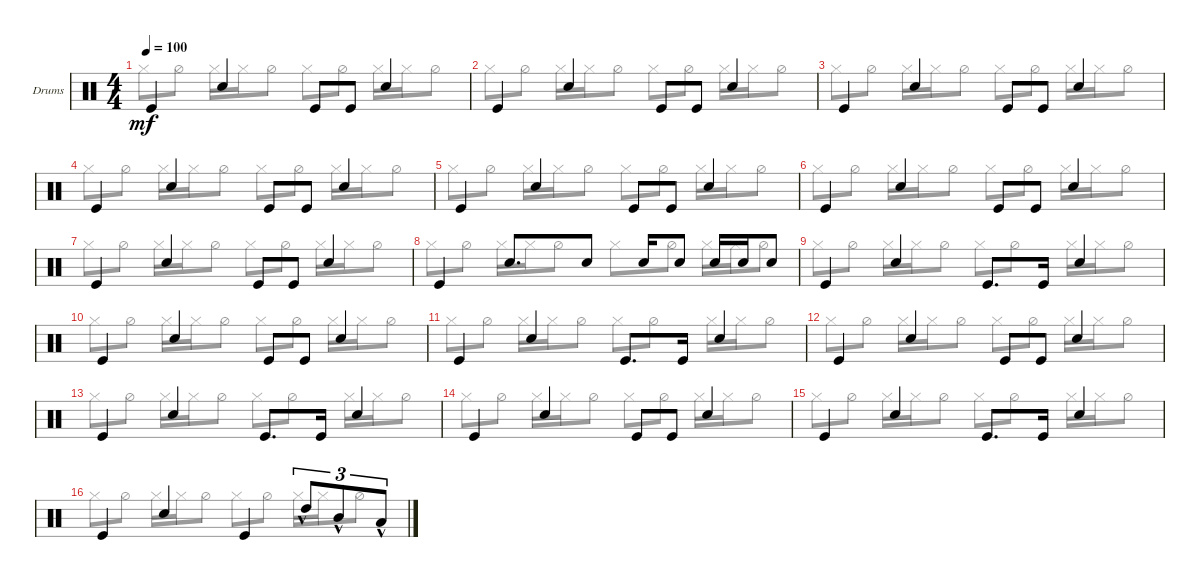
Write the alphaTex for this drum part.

\bracketExtendMode groupsimilarinstruments
\firstSystemTrackNameOrientation horizontal
\otherSystemsTrackNameOrientation horizontal
\track ("Drumkit" "Drums") {multiBarRest instrument percussion}
\staff {score}
\articulation defaults
\voice
\ts (4 4)
\tempo 100
\clef neutral
\scale
0.25
\ks c "Kick (hit)".4{dy mf} "Snare (hit) 2".4 "Kick (hit)".8 "Kick (hit)".8 "Snare (hit) 2".4
|
\scale
0.25 "Kick (hit)".4 "Snare (hit) 2".4 "Kick (hit)".8 "Kick (hit)".8 "Snare (hit) 2".4 |
\scale
0.25 "Kick (hit)".4 "Snare (hit) 2".4 "Kick (hit)".8 "Kick (hit)".8 "Snare (hit) 2".4 |
\scale
0.25 "Kick (hit)".4 "Snare (hit) 2".4 "Kick (hit)".8 "Kick (hit)".8 "Snare (hit) 2".4 |
\scale
0.25 "Kick (hit)".4 "Snare (hit) 2".4 "Kick (hit)".8 "Kick (hit)".8 "Snare (hit) 2".4 |
\scale
0.25 "Kick (hit)".4 "Snare (hit) 2".4 "Kick (hit)".8 "Kick (hit)".8 "Snare (hit) 2".4 |
\scale
0.25 "Kick (hit)".4 "Snare (hit) 2".4 "Kick (hit)".8 "Kick (hit)".8 "Snare (hit) 2".4 |
\scale
0.25 "Kick (hit)".4 "Snare (hit) 2".8{d} "Snare (hit) 2".8 "Snare (hit) 2".16 "Snare (hit) 2".8 "Snare (hit) 2".16 "Snare (hit) 2".16 "Snare (hit) 2".8 |
\scale
0.25 "Kick (hit)".4 "Snare (hit) 2".4 "Kick (hit)".8{d} "Kick (hit)".16 "Snare (hit) 2".4 |
\scale
0.25 "Kick (hit)".4 "Snare (hit) 2".4 "Kick (hit)".8 "Kick (hit)".8 "Snare (hit) 2".4 |
\scale
0.25 "Kick (hit)".4 "Snare (hit) 2".4 "Kick (hit)".8{d} "Kick (hit)".16 "Snare (hit) 2".4 |
\scale
0.25 "Kick (hit)".4 "Snare (hit) 2".4 "Kick (hit)".8 "Kick (hit)".8 "Snare (hit) 2".4 |
\scale
0.196429 "Kick (hit)".4 "Snare (hit) 2".4 "Kick (hit)".8{d} "Kick (hit)".16 "Snare (hit) 2".4 |
\scale
0.196429 "Kick (hit)".4 "Snare (hit) 2".4 "Kick (hit)".8 "Kick (hit)".8 "Snare (hit) 2".4 |
\scale
0.196429 "Kick (hit)".4 "Snare (hit) 2".4 "Kick (hit)".8{d} "Kick (hit)".16 "Snare (hit) 2".4 |
\scale
0.410714 "Kick (hit)".4 "Snare (hit) 2".4 "Kick (hit)".4 "High Tom (hit)"{hac}.8{tu (3 2)} "Mid Tom (hit)"{hac}.8{tu (3 2)} "Low Tom (hit)"{hac}.8{tu (3 2)}
\voice
\clef neutral
\ottava regular
\simile none
\scale
0.25
\ks c "Hi-Hat (closed)".8{dy mf} "Hi-Hat (half)".8 "Hi-Hat (closed)".16 "Hi-Hat (closed)".16 "Hi-Hat (half)".8 "Hi-Hat (closed)".8 "Hi-Hat (half)".8 "Hi-Hat (closed)".16 "Hi-Hat (closed)".16 "Hi-Hat (half)".8
|
\scale
0.25 "Hi-Hat (closed)".8 "Hi-Hat (half)".8 "Hi-Hat (closed)".16 "Hi-Hat (closed)".16 "Hi-Hat (half)".8 "Hi-Hat (closed)".8 "Hi-Hat (half)".8 "Hi-Hat (closed)".16 "Hi-Hat (closed)".16 "Hi-Hat (half)".8 |
\scale
0.25 "Hi-Hat (closed)".8 "Hi-Hat (half)".8 "Hi-Hat (closed)".16 "Hi-Hat (closed)".16 "Hi-Hat (half)".8 "Hi-Hat (closed)".8 "Hi-Hat (half)".8 "Hi-Hat (closed)".16 "Hi-Hat (closed)".16 "Hi-Hat (half)".8 |
\scale
0.25 "Hi-Hat (closed)".8 "Hi-Hat (half)".8 "Hi-Hat (closed)".16 "Hi-Hat (closed)".16 "Hi-Hat (half)".8 "Hi-Hat (closed)".8 "Hi-Hat (half)".8 "Hi-Hat (closed)".16 "Hi-Hat (closed)".16 "Hi-Hat (half)".8 |
\scale
0.25 "Hi-Hat (closed)".8 "Hi-Hat (half)".8 "Hi-Hat (closed)".16 "Hi-Hat (closed)".16 "Hi-Hat (half)".8 "Hi-Hat (closed)".8 "Hi-Hat (half)".8 "Hi-Hat (closed)".16 "Hi-Hat (closed)".16 "Hi-Hat (half)".8 |
\scale
0.25 "Hi-Hat (closed)".8 "Hi-Hat (half)".8 "Hi-Hat (closed)".16 "Hi-Hat (closed)".16 "Hi-Hat (half)".8 "Hi-Hat (closed)".8 "Hi-Hat (half)".8 "Hi-Hat (closed)".16 "Hi-Hat (closed)".16 "Hi-Hat (half)".8 |
\scale
0.25 "Hi-Hat (closed)".8 "Hi-Hat (half)".8 "Hi-Hat (closed)".16 "Hi-Hat (closed)".16 "Hi-Hat (half)".8 "Hi-Hat (closed)".8 "Hi-Hat (half)".8 "Hi-Hat (closed)".16 "Hi-Hat (closed)".16 "Hi-Hat (half)".8 |
\scale
0.25 "Hi-Hat (closed)".8 "Hi-Hat (half)".8 "Hi-Hat (closed)".16 "Hi-Hat (closed)".16 "Hi-Hat (half)".8 "Hi-Hat (closed)".8 "Hi-Hat (half)".8 "Hi-Hat (closed)".16 "Hi-Hat (closed)".16 "Hi-Hat (half)".8 |
\scale
0.25 "Hi-Hat (closed)".8 "Hi-Hat (half)".8 "Hi-Hat (closed)".16 "Hi-Hat (closed)".16 "Hi-Hat (half)".8 "Hi-Hat (closed)".8 "Hi-Hat (half)".8 "Hi-Hat (closed)".16 "Hi-Hat (closed)".16 "Hi-Hat (half)".8 |
\scale
0.25 "Hi-Hat (closed)".8 "Hi-Hat (half)".8 "Hi-Hat (closed)".16 "Hi-Hat (closed)".16 "Hi-Hat (half)".8 "Hi-Hat (closed)".8 "Hi-Hat (half)".8 "Hi-Hat (closed)".16 "Hi-Hat (closed)".16 "Hi-Hat (half)".8 |
\scale
0.25 "Hi-Hat (closed)".8 "Hi-Hat (half)".8 "Hi-Hat (closed)".16 "Hi-Hat (closed)".16 "Hi-Hat (half)".8 "Hi-Hat (closed)".8 "Hi-Hat (half)".8 "Hi-Hat (closed)".16 "Hi-Hat (closed)".16 "Hi-Hat (half)".8 |
\scale
0.25 "Hi-Hat (closed)".8 "Hi-Hat (half)".8 "Hi-Hat (closed)".16 "Hi-Hat (closed)".16 "Hi-Hat (half)".8 "Hi-Hat (closed)".8 "Hi-Hat (half)".8 "Hi-Hat (closed)".16 "Hi-Hat (closed)".16 "Hi-Hat (half)".8 |
\scale
0.196429 "Hi-Hat (closed)".8 "Hi-Hat (half)".8 "Hi-Hat (closed)".16 "Hi-Hat (closed)".16 "Hi-Hat (half)".8 "Hi-Hat (closed)".8 "Hi-Hat (half)".8 "Hi-Hat (closed)".16 "Hi-Hat (closed)".16 "Hi-Hat (half)".8 |
\scale
0.196429 "Hi-Hat (closed)".8 "Hi-Hat (half)".8 "Hi-Hat (closed)".16 "Hi-Hat (closed)".16 "Hi-Hat (half)".8 "Hi-Hat (closed)".8 "Hi-Hat (half)".8 "Hi-Hat (closed)".16 "Hi-Hat (closed)".16 "Hi-Hat (half)".8 |
\scale
0.196429 "Hi-Hat (closed)".8 "Hi-Hat (half)".8 "Hi-Hat (closed)".16 "Hi-Hat (closed)".16 "Hi-Hat (half)".8 "Hi-Hat (closed)".8 "Hi-Hat (half)".8 "Hi-Hat (closed)".16 "Hi-Hat (closed)".16 "Hi-Hat (half)".8 |
\scale
0.410714 "Hi-Hat (closed)".8 "Hi-Hat (half)".8 "Hi-Hat (closed)".16 "Hi-Hat (closed)".16 "Hi-Hat (half)".8 "Hi-Hat (closed)".8 "Hi-Hat (half)".8 "Hi-Hat (closed)".16 "Hi-Hat (closed)".16 "Hi-Hat (half)".8
